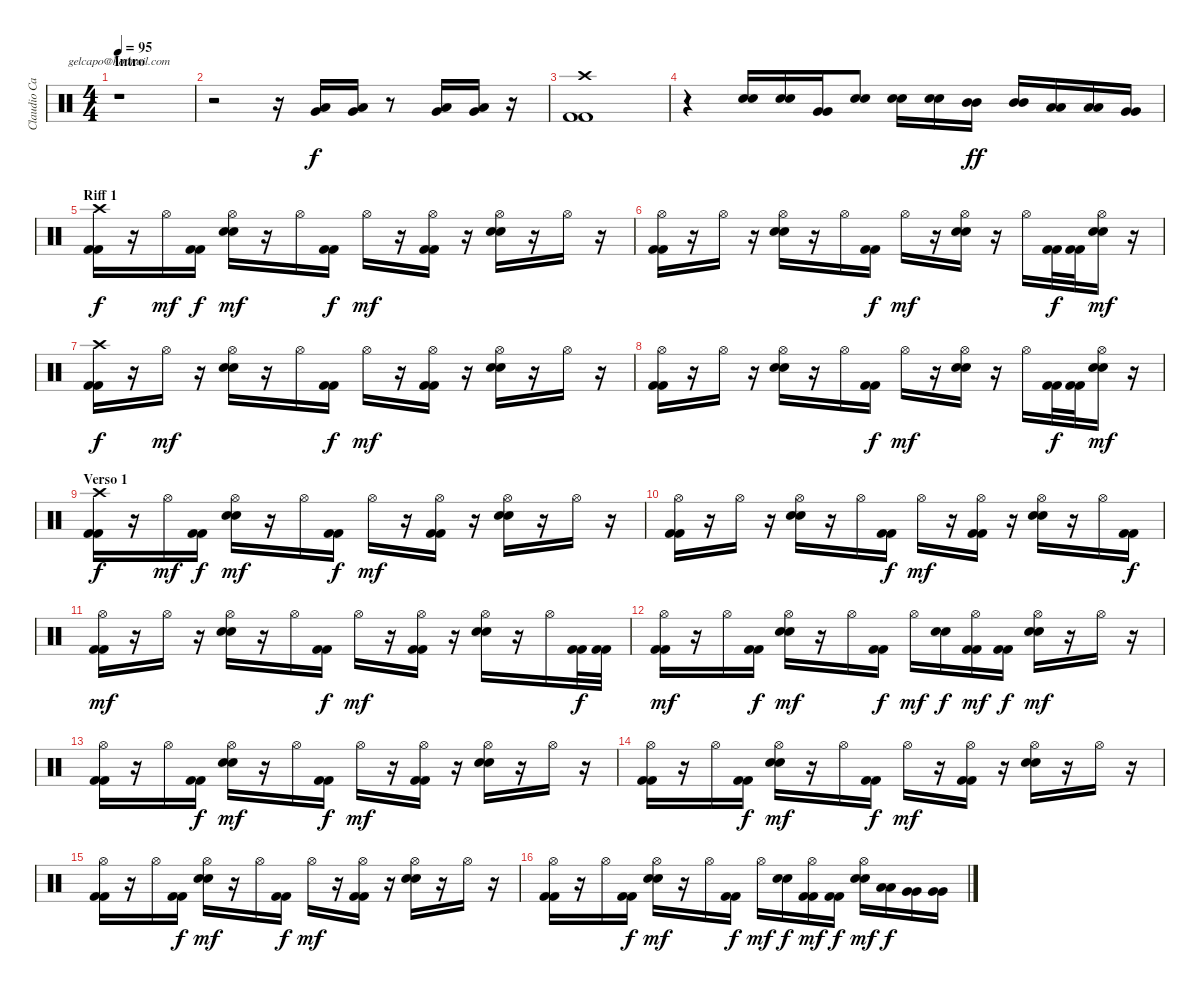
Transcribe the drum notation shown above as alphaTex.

\track ("Claudio Cardaci (bateria)" "Claudio Ca") {instrument percussion}
\staff {score}
\articulation defaults
\chord ("gelcapo@hotmail.com") {firstfret 0}
\ts (4 4)
\section ("" "Intro")
\tempo 95
\clef neutral
\ks c
r.1{ch "gelcapo@hotmail.com" dy f} |
r.2 r.16 ("Low Tom (hit)" "Very Low Tom (hit)").16 ("Low Tom (hit)" "Very Low Tom (hit)").16 r.8 ("Low Tom (hit)" "Very Low Tom (hit)").16 ("Low Tom (hit)" "Very Low Tom (hit)").16 r.16 |
("Crash high (hit)" "Kick (hit) 2" "Kick (hit) 2").1 |
r.4 ("Snare (hit) 2" "Snare (hit) 2").16 ("Snare (hit) 2" "Snare (hit) 2").16 ("Very Low Tom (hit)" "Very Low Tom (hit)").16 ("Snare (hit) 2" "Snare (hit) 2").8 ("Snare (hit) 2" "Snare (hit) 2").16 ("Snare (hit) 2" "Snare (hit) 2").16 ("Mid Tom (hit)" "Mid Tom (hit)").16{dy ff} ("Mid Tom (hit)" "Mid Tom (hit)").16 ("Low Tom (hit)" "Low Tom (hit)").16 ("Low Tom (hit)" "Low Tom (hit)").16 ("Very Low Tom (hit)" "Very Low Tom (hit)").16 |
\section ("" "Riff 1")
("Crash high (hit)" "Kick (hit) 2" "Kick (hit) 2").16{dy f} r.16 "Hi-Hat (open)".16{dy mf} ("Kick (hit) 2" "Kick (hit) 2").16{dy f} ("Hi-Hat (open)" "Snare (hit) 2" "Snare (hit) 2").16{dy mf} r.16 "Hi-Hat (open)".16 ("Kick (hit) 2" "Kick (hit) 2").16{dy f} "Hi-Hat (open)".16{dy mf} r.16 ("Hi-Hat (open)" "Kick (hit) 2" "Kick (hit) 2").16 r.16 ("Hi-Hat (open)" "Snare (hit) 2" "Snare (hit) 2").16 r.16 "Hi-Hat (open)".16 r.16 |
("Hi-Hat (open)" "Kick (hit) 2" "Kick (hit) 2").16 r.16 "Hi-Hat (open)".16 r.16 ("Hi-Hat (open)" "Snare (hit) 2" "Snare (hit) 2").16 r.16 "Hi-Hat (open)".16 ("Kick (hit) 2" "Kick (hit) 2").16{dy f} "Hi-Hat (open)".16{dy mf} r.16 ("Hi-Hat (open)" "Snare (hit) 2" "Snare (hit) 2").16 r.16 "Hi-Hat (open)".16 ("Kick (hit) 2" "Kick (hit) 2").32{dy f} ("Kick (hit) 2" "Kick (hit) 2").32 ("Hi-Hat (open)" "Snare (hit) 2" "Snare (hit) 2").16{dy mf} r.16 |
("Crash high (hit)" "Kick (hit) 2" "Kick (hit) 2").16{dy f} r.16 "Hi-Hat (open)".16{dy mf} r.16 ("Hi-Hat (open)" "Snare (hit) 2" "Snare (hit) 2").16 r.16 "Hi-Hat (open)".16 ("Kick (hit) 2" "Kick (hit) 2").16{dy f} "Hi-Hat (open)".16{dy mf} r.16 ("Hi-Hat (open)" "Kick (hit) 2" "Kick (hit) 2").16 r.16 ("Hi-Hat (open)" "Snare (hit) 2" "Snare (hit) 2").16 r.16 "Hi-Hat (open)".16 r.16 |
("Hi-Hat (open)" "Kick (hit) 2" "Kick (hit) 2").16 r.16 "Hi-Hat (open)".16 r.16 ("Hi-Hat (open)" "Snare (hit) 2" "Snare (hit) 2").16 r.16 "Hi-Hat (open)".16 ("Kick (hit) 2" "Kick (hit) 2").16{dy f} "Hi-Hat (open)".16{dy mf} r.16 ("Hi-Hat (open)" "Snare (hit) 2" "Snare (hit) 2").16 r.16 "Hi-Hat (open)".16 ("Kick (hit) 2" "Kick (hit) 2").32{dy f} ("Kick (hit) 2" "Kick (hit) 2").32 ("Hi-Hat (open)" "Snare (hit) 2" "Snare (hit) 2").16{dy mf} r.16 |
\section ("" "Verso 1")
("Crash high (hit)" "Kick (hit) 2" "Kick (hit) 2").16{dy f} r.16 "Hi-Hat (open)".16{dy mf} ("Kick (hit) 2" "Kick (hit) 2").16{dy f} ("Hi-Hat (open)" "Snare (hit) 2" "Snare (hit) 2").16{dy mf} r.16 "Hi-Hat (open)".16 ("Kick (hit) 2" "Kick (hit) 2").16{dy f} "Hi-Hat (open)".16{dy mf} r.16 ("Hi-Hat (open)" "Kick (hit) 2" "Kick (hit) 2").16 r.16 ("Hi-Hat (open)" "Snare (hit) 2" "Snare (hit) 2").16 r.16 "Hi-Hat (open)".16 r.16 |
("Hi-Hat (open)" "Kick (hit) 2" "Kick (hit) 2").16 r.16 "Hi-Hat (open)".16 r.16 ("Hi-Hat (open)" "Snare (hit) 2" "Snare (hit) 2").16 r.16 "Hi-Hat (open)".16 ("Kick (hit) 2" "Kick (hit) 2").16{dy f} "Hi-Hat (open)".16{dy mf} r.16 ("Hi-Hat (open)" "Kick (hit) 2" "Kick (hit) 2").16 r.16 ("Hi-Hat (open)" "Snare (hit) 2" "Snare (hit) 2").16 r.16 "Hi-Hat (open)".16 ("Kick (hit) 2" "Kick (hit) 2").16{dy f} |
("Hi-Hat (open)" "Kick (hit) 2" "Kick (hit) 2").16{dy mf} r.16 "Hi-Hat (open)".16 r.16 ("Hi-Hat (open)" "Snare (hit) 2" "Snare (hit) 2").16 r.16 "Hi-Hat (open)".16 ("Kick (hit) 2" "Kick (hit) 2").16{dy f} "Hi-Hat (open)".16{dy mf} r.16 ("Hi-Hat (open)" "Kick (hit) 2" "Kick (hit) 2").16 r.16 ("Hi-Hat (open)" "Snare (hit) 2" "Snare (hit) 2").16 r.16 "Hi-Hat (open)".16 ("Kick (hit) 2" "Kick (hit) 2").32{dy f} ("Kick (hit) 2" "Kick (hit) 2").32 |
("Hi-Hat (open)" "Kick (hit) 2" "Kick (hit) 2").16{dy mf} r.16 "Hi-Hat (open)".16 ("Kick (hit) 2" "Kick (hit) 2").16{dy f} ("Hi-Hat (open)" "Snare (hit) 2" "Snare (hit) 2").16{dy mf} r.16 "Hi-Hat (open)".16 ("Kick (hit) 2" "Kick (hit) 2").16{dy f} "Hi-Hat (open)".16{dy mf} ("Snare (hit) 2" "Snare (hit) 2").16{dy f} ("Hi-Hat (open)" "Kick (hit) 2" "Kick (hit) 2").16{dy mf} ("Kick (hit) 2" "Kick (hit) 2").16{dy f} ("Hi-Hat (open)" "Snare (hit) 2" "Snare (hit) 2").16{dy mf} r.16 "Hi-Hat (open)".16 r.16 |
("Hi-Hat (open)" "Kick (hit) 2" "Kick (hit) 2").16 r.16 "Hi-Hat (open)".16 ("Kick (hit) 2" "Kick (hit) 2").16{dy f} ("Hi-Hat (open)" "Snare (hit) 2" "Snare (hit) 2").16{dy mf} r.16 "Hi-Hat (open)".16 ("Kick (hit) 2" "Kick (hit) 2").16{dy f} "Hi-Hat (open)".16{dy mf} r.16 ("Hi-Hat (open)" "Kick (hit) 2" "Kick (hit) 2").16 r.16 ("Hi-Hat (open)" "Snare (hit) 2" "Snare (hit) 2").16 r.16 "Hi-Hat (open)".16 r.16 |
("Hi-Hat (open)" "Kick (hit) 2" "Kick (hit) 2").16 r.16 "Hi-Hat (open)".16 ("Kick (hit) 2" "Kick (hit) 2").16{dy f} ("Hi-Hat (open)" "Snare (hit) 2" "Snare (hit) 2").16{dy mf} r.16 "Hi-Hat (open)".16 ("Kick (hit) 2" "Kick (hit) 2").16{dy f} "Hi-Hat (open)".16{dy mf} r.16 ("Hi-Hat (open)" "Kick (hit) 2" "Kick (hit) 2").16 r.16 ("Hi-Hat (open)" "Snare (hit) 2" "Snare (hit) 2").16 r.16 "Hi-Hat (open)".16 r.16 |
("Hi-Hat (open)" "Kick (hit) 2" "Kick (hit) 2").16 r.16 "Hi-Hat (open)".16 ("Kick (hit) 2" "Kick (hit) 2").16{dy f} ("Hi-Hat (open)" "Snare (hit) 2" "Snare (hit) 2").16{dy mf} r.16 "Hi-Hat (open)".16 ("Kick (hit) 2" "Kick (hit) 2").16{dy f} "Hi-Hat (open)".16{dy mf} r.16 ("Hi-Hat (open)" "Kick (hit) 2" "Kick (hit) 2").16 r.16 ("Hi-Hat (open)" "Snare (hit) 2" "Snare (hit) 2").16 r.16 "Hi-Hat (open)".16 r.16 |
("Hi-Hat (open)" "Kick (hit) 2" "Kick (hit) 2").16 r.16 "Hi-Hat (open)".16 ("Kick (hit) 2" "Kick (hit) 2").16{dy f} ("Hi-Hat (open)" "Snare (hit) 2" "Snare (hit) 2").16{dy mf} r.16 "Hi-Hat (open)".16 ("Kick (hit) 2" "Kick (hit) 2").16{dy f} "Hi-Hat (open)".16{dy mf} ("Snare (hit) 2" "Snare (hit) 2").16{dy f} ("Hi-Hat (open)" "Kick (hit) 2" "Kick (hit) 2").16{dy mf} ("Kick (hit) 2" "Kick (hit) 2").16{dy f} ("Hi-Hat (open)" "Snare (hit) 2" "Snare (hit) 2").16{dy mf} ("Low Tom (hit)" "Low Tom (hit)").16{dy f} ("Very Low Tom (hit)" "Very Low Tom (hit)").16 ("Very Low Tom (hit)" "Very Low Tom (hit)").16
